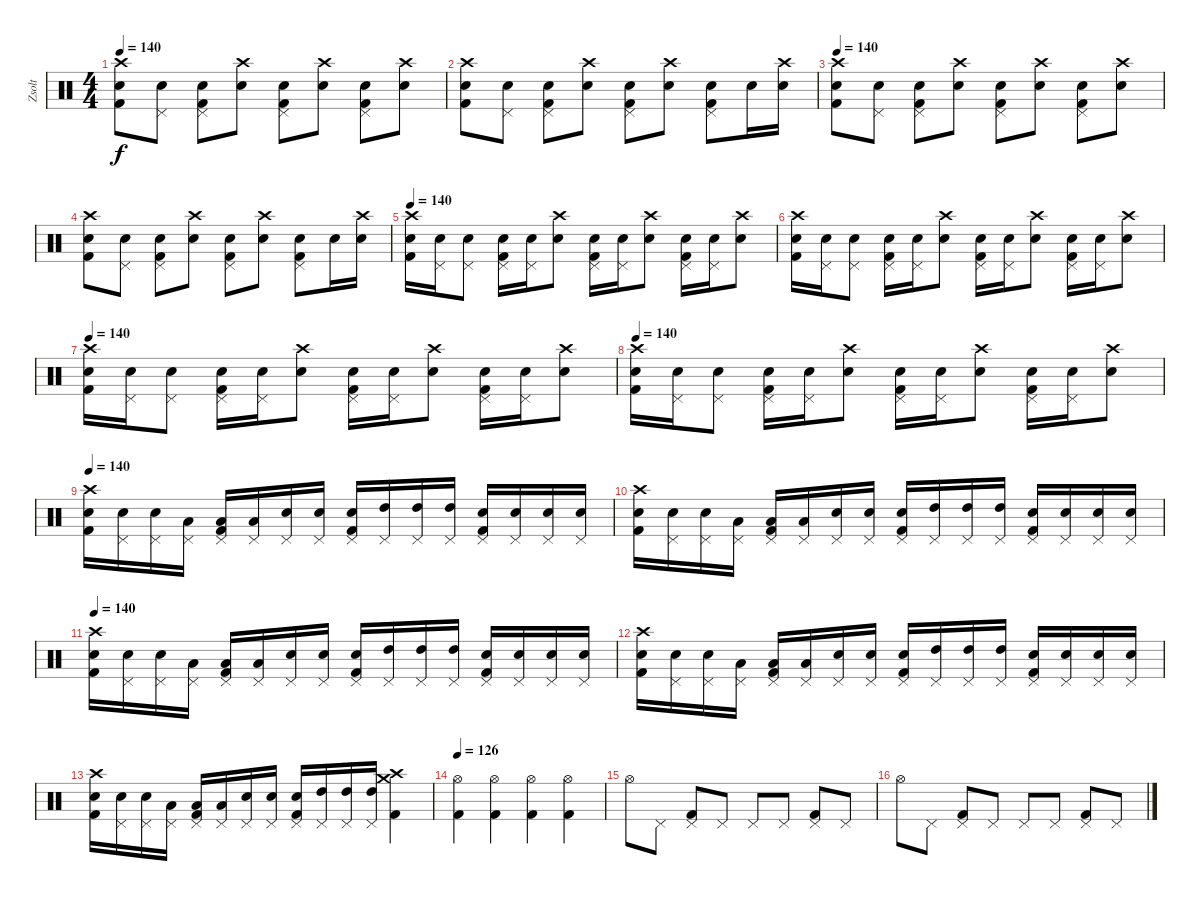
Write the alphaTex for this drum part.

\track ("Zsolt" "Zsolt") {instrument percussion}
\staff {score}
\articulation defaults
\ts (4 4)
\tempo 140
\clef neutral
\ks c
("Crash high (hit)" "Snare (hit) 2" "Kick (hit) 2").8{dy f} ("Pedal Hi-Hat (hit)" "Snare (hit) 2").8 ("Pedal Hi-Hat (hit)" "Snare (hit) 2" "Kick (hit) 2").8 ("Crash high (hit)" "Snare (hit) 2").8 ("Pedal Hi-Hat (hit)" "Snare (hit) 2" "Kick (hit) 2").8 ("Crash high (hit)" "Snare (hit) 2").8 ("Pedal Hi-Hat (hit)" "Snare (hit) 2" "Kick (hit) 2").8 ("Crash high (hit)" "Snare (hit) 2").8 |
("Crash high (hit)" "Snare (hit) 2" "Kick (hit) 2").8 ("Pedal Hi-Hat (hit)" "Snare (hit) 2").8 ("Pedal Hi-Hat (hit)" "Snare (hit) 2" "Kick (hit) 2").8 ("Crash high (hit)" "Snare (hit) 2").8 ("Pedal Hi-Hat (hit)" "Snare (hit) 2" "Kick (hit) 2").8 ("Crash high (hit)" "Snare (hit) 2").8 ("Pedal Hi-Hat (hit)" "Snare (hit) 2" "Kick (hit) 2").8 "Snare (hit) 2".16 ("Crash high (hit)" "Snare (hit) 2").16 |
\tempo 140
("Crash high (hit)" "Snare (hit) 2" "Kick (hit) 2").8 ("Pedal Hi-Hat (hit)" "Snare (hit) 2").8 ("Pedal Hi-Hat (hit)" "Snare (hit) 2" "Kick (hit) 2").8 ("Crash high (hit)" "Snare (hit) 2").8 ("Pedal Hi-Hat (hit)" "Snare (hit) 2" "Kick (hit) 2").8 ("Crash high (hit)" "Snare (hit) 2").8 ("Pedal Hi-Hat (hit)" "Snare (hit) 2" "Kick (hit) 2").8 ("Crash high (hit)" "Snare (hit) 2").8 |
("Crash high (hit)" "Snare (hit) 2" "Kick (hit) 2").8 ("Pedal Hi-Hat (hit)" "Snare (hit) 2").8 ("Pedal Hi-Hat (hit)" "Snare (hit) 2" "Kick (hit) 2").8 ("Crash high (hit)" "Snare (hit) 2").8 ("Pedal Hi-Hat (hit)" "Snare (hit) 2" "Kick (hit) 2").8 ("Crash high (hit)" "Snare (hit) 2").8 ("Pedal Hi-Hat (hit)" "Snare (hit) 2" "Kick (hit) 2").8 "Snare (hit) 2".16 ("Crash high (hit)" "Snare (hit) 2").16 |
\tempo 140
("Crash high (hit)" "Snare (hit) 2" "Kick (hit) 2").16 ("Pedal Hi-Hat (hit)" "Snare (hit) 2").16 ("Pedal Hi-Hat (hit)" "Snare (hit) 2").8 ("Pedal Hi-Hat (hit)" "Snare (hit) 2" "Kick (hit) 2").16 ("Pedal Hi-Hat (hit)" "Snare (hit) 2").16 ("Crash high (hit)" "Snare (hit) 2").8 ("Pedal Hi-Hat (hit)" "Snare (hit) 2" "Kick (hit) 2").16 ("Pedal Hi-Hat (hit)" "Snare (hit) 2").16 ("Crash high (hit)" "Snare (hit) 2").8 ("Pedal Hi-Hat (hit)" "Snare (hit) 2" "Kick (hit) 2").16 ("Pedal Hi-Hat (hit)" "Snare (hit) 2").16 ("Crash high (hit)" "Snare (hit) 2").8 |
("Crash high (hit)" "Snare (hit) 2" "Kick (hit) 2").16 ("Pedal Hi-Hat (hit)" "Snare (hit) 2").16 ("Pedal Hi-Hat (hit)" "Snare (hit) 2").8 ("Pedal Hi-Hat (hit)" "Snare (hit) 2" "Kick (hit) 2").16 ("Pedal Hi-Hat (hit)" "Snare (hit) 2").16 ("Crash high (hit)" "Snare (hit) 2").8 ("Pedal Hi-Hat (hit)" "Snare (hit) 2" "Kick (hit) 2").16 ("Pedal Hi-Hat (hit)" "Snare (hit) 2").16 ("Crash high (hit)" "Snare (hit) 2").8 ("Pedal Hi-Hat (hit)" "Snare (hit) 2" "Kick (hit) 2").16 ("Pedal Hi-Hat (hit)" "Snare (hit) 2").16 ("Crash high (hit)" "Snare (hit) 2").8 |
\tempo 140
("Crash high (hit)" "Snare (hit) 2" "Kick (hit) 2").16 ("Pedal Hi-Hat (hit)" "Snare (hit) 2").16 ("Pedal Hi-Hat (hit)" "Snare (hit) 2").8 ("Pedal Hi-Hat (hit)" "Snare (hit) 2" "Kick (hit) 2").16 ("Pedal Hi-Hat (hit)" "Snare (hit) 2").16 ("Crash high (hit)" "Snare (hit) 2").8 ("Pedal Hi-Hat (hit)" "Snare (hit) 2" "Kick (hit) 2").16 ("Pedal Hi-Hat (hit)" "Snare (hit) 2").16 ("Crash high (hit)" "Snare (hit) 2").8 ("Pedal Hi-Hat (hit)" "Snare (hit) 2" "Kick (hit) 2").16 ("Pedal Hi-Hat (hit)" "Snare (hit) 2").16 ("Crash high (hit)" "Snare (hit) 2").8 |
\tempo 140
("Crash high (hit)" "Snare (hit) 2" "Kick (hit) 2").16 ("Pedal Hi-Hat (hit)" "Snare (hit) 2").16 ("Pedal Hi-Hat (hit)" "Snare (hit) 2").8 ("Pedal Hi-Hat (hit)" "Snare (hit) 2" "Kick (hit) 2").16 ("Pedal Hi-Hat (hit)" "Snare (hit) 2").16 ("Crash high (hit)" "Snare (hit) 2").8 ("Pedal Hi-Hat (hit)" "Snare (hit) 2" "Kick (hit) 2").16 ("Pedal Hi-Hat (hit)" "Snare (hit) 2").16 ("Crash high (hit)" "Snare (hit) 2").8 ("Pedal Hi-Hat (hit)" "Snare (hit) 2" "Kick (hit) 2").16 ("Pedal Hi-Hat (hit)" "Snare (hit) 2").16 ("Crash high (hit)" "Snare (hit) 2").8 |
\tempo 140
("Crash high (hit)" "Snare (hit) 2" "Kick (hit) 2").16 ("Pedal Hi-Hat (hit)" "Snare (hit) 2").16 ("Pedal Hi-Hat (hit)" "Snare (hit) 2").16 ("Pedal Hi-Hat (hit)" "Low Tom (hit)").16 ("Pedal Hi-Hat (hit)" "Low Tom (hit)" "Kick (hit) 2").16 ("Pedal Hi-Hat (hit)" "Low Tom (hit)").16 ("Pedal Hi-Hat (hit)" "Snare (hit) 2").16 ("Pedal Hi-Hat (hit)" "Snare (hit) 2").16 ("Pedal Hi-Hat (hit)" "Snare (hit) 2" "Kick (hit) 2").16 ("Pedal Hi-Hat (hit)" "High Tom (hit)").16 ("Pedal Hi-Hat (hit)" "High Tom (hit)").16 ("Pedal Hi-Hat (hit)" "High Tom (hit)").16 ("Pedal Hi-Hat (hit)" "Snare (hit) 2" "Kick (hit) 2").16 ("Pedal Hi-Hat (hit)" "Snare (hit) 2").16 ("Pedal Hi-Hat (hit)" "Snare (hit) 2").16 ("Pedal Hi-Hat (hit)" "Snare (hit) 2").16 |
("Crash high (hit)" "Snare (hit) 2" "Kick (hit) 2").16 ("Pedal Hi-Hat (hit)" "Snare (hit) 2").16 ("Pedal Hi-Hat (hit)" "Snare (hit) 2").16 ("Pedal Hi-Hat (hit)" "Low Tom (hit)").16 ("Pedal Hi-Hat (hit)" "Low Tom (hit)" "Kick (hit) 2").16 ("Pedal Hi-Hat (hit)" "Low Tom (hit)").16 ("Pedal Hi-Hat (hit)" "Snare (hit) 2").16 ("Pedal Hi-Hat (hit)" "Snare (hit) 2").16 ("Pedal Hi-Hat (hit)" "Snare (hit) 2" "Kick (hit) 2").16 ("Pedal Hi-Hat (hit)" "High Tom (hit)").16 ("Pedal Hi-Hat (hit)" "High Tom (hit)").16 ("Pedal Hi-Hat (hit)" "High Tom (hit)").16 ("Pedal Hi-Hat (hit)" "Snare (hit) 2" "Kick (hit) 2").16 ("Pedal Hi-Hat (hit)" "Snare (hit) 2").16 ("Pedal Hi-Hat (hit)" "Snare (hit) 2").16 ("Pedal Hi-Hat (hit)" "Snare (hit) 2").16 |
\tempo 140
("Crash high (hit)" "Snare (hit) 2" "Kick (hit) 2").16 ("Pedal Hi-Hat (hit)" "Snare (hit) 2").16 ("Pedal Hi-Hat (hit)" "Snare (hit) 2").16 ("Pedal Hi-Hat (hit)" "Low Tom (hit)").16 ("Pedal Hi-Hat (hit)" "Low Tom (hit)" "Kick (hit) 2").16 ("Pedal Hi-Hat (hit)" "Low Tom (hit)").16 ("Pedal Hi-Hat (hit)" "Snare (hit) 2").16 ("Pedal Hi-Hat (hit)" "Snare (hit) 2").16 ("Pedal Hi-Hat (hit)" "Snare (hit) 2" "Kick (hit) 2").16 ("Pedal Hi-Hat (hit)" "High Tom (hit)").16 ("Pedal Hi-Hat (hit)" "High Tom (hit)").16 ("Pedal Hi-Hat (hit)" "High Tom (hit)").16 ("Pedal Hi-Hat (hit)" "Snare (hit) 2" "Kick (hit) 2").16 ("Pedal Hi-Hat (hit)" "Snare (hit) 2").16 ("Pedal Hi-Hat (hit)" "Snare (hit) 2").16 ("Pedal Hi-Hat (hit)" "Snare (hit) 2").16 |
("Crash high (hit)" "Snare (hit) 2" "Kick (hit) 2").16 ("Pedal Hi-Hat (hit)" "Snare (hit) 2").16 ("Pedal Hi-Hat (hit)" "Snare (hit) 2").16 ("Pedal Hi-Hat (hit)" "Low Tom (hit)").16 ("Pedal Hi-Hat (hit)" "Low Tom (hit)" "Kick (hit) 2").16 ("Pedal Hi-Hat (hit)" "Low Tom (hit)").16 ("Pedal Hi-Hat (hit)" "Snare (hit) 2").16 ("Pedal Hi-Hat (hit)" "Snare (hit) 2").16 ("Pedal Hi-Hat (hit)" "Snare (hit) 2" "Kick (hit) 2").16 ("Pedal Hi-Hat (hit)" "High Tom (hit)").16 ("Pedal Hi-Hat (hit)" "High Tom (hit)").16 ("Pedal Hi-Hat (hit)" "High Tom (hit)").16 ("Pedal Hi-Hat (hit)" "Snare (hit) 2" "Kick (hit) 2").16 ("Pedal Hi-Hat (hit)" "Snare (hit) 2").16 ("Pedal Hi-Hat (hit)" "Snare (hit) 2").16 ("Pedal Hi-Hat (hit)" "Snare (hit) 2").16 |
("Crash high (hit)" "Snare (hit) 2" "Kick (hit) 2").16 ("Pedal Hi-Hat (hit)" "Snare (hit) 2").16 ("Pedal Hi-Hat (hit)" "Snare (hit) 2").16 ("Pedal Hi-Hat (hit)" "Low Tom (hit)").16 ("Pedal Hi-Hat (hit)" "Low Tom (hit)" "Kick (hit) 2").16 ("Pedal Hi-Hat (hit)" "Low Tom (hit)").16 ("Pedal Hi-Hat (hit)" "Snare (hit) 2").16 ("Pedal Hi-Hat (hit)" "Snare (hit) 2").16 ("Pedal Hi-Hat (hit)" "Snare (hit) 2" "Kick (hit) 2").16 ("Pedal Hi-Hat (hit)" "High Tom (hit)").16 ("Pedal Hi-Hat (hit)" "High Tom (hit)").16 ("Pedal Hi-Hat (hit)" "High Tom (hit)").16 ("Crash medium (hit)" "Crash high (hit)" "Kick (hit) 2").4 |
\tempo 126
("Hi-Hat (open)" "Kick (hit) 2").4 ("Hi-Hat (open)" "Kick (hit) 2").4 ("Hi-Hat (open)" "Kick (hit) 2").4 ("Hi-Hat (open)" "Kick (hit) 2").4 |
"Hi-Hat (open)".8 "Pedal Hi-Hat (hit)".8 ("Pedal Hi-Hat (hit)" "Kick (hit) 2").8 "Pedal Hi-Hat (hit)".8 "Pedal Hi-Hat (hit)".8 "Pedal Hi-Hat (hit)".8 ("Pedal Hi-Hat (hit)" "Kick (hit) 2").8 "Pedal Hi-Hat (hit)".8 |
"Hi-Hat (open)".8 "Pedal Hi-Hat (hit)".8 ("Pedal Hi-Hat (hit)" "Kick (hit) 2").8 "Pedal Hi-Hat (hit)".8 "Pedal Hi-Hat (hit)".8 "Pedal Hi-Hat (hit)".8 ("Pedal Hi-Hat (hit)" "Kick (hit) 2").8 "Pedal Hi-Hat (hit)".8
